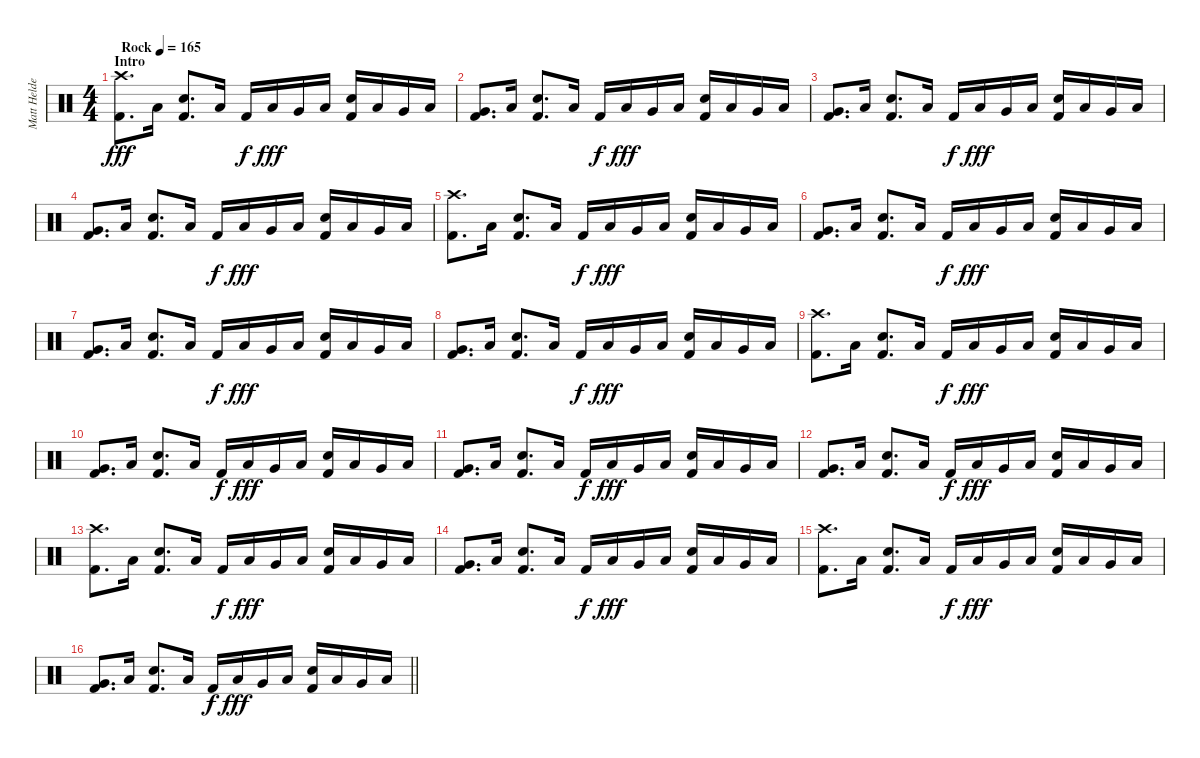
\track ("Matt Helders (Drums)" "Matt Helde") {instrument percussion}
\staff {score}
\articulation defaults
\ts (4 4)
\section ("" "Intro")
\tempo (165 "Rock")
\clef neutral
\ks c
("Crash high (hit)" "Kick (hit) 2").8{d dy fff} "Low Tom (hit)".16 ("Electric Snare (hit)" "Kick (hit) 2").8{d} "Low Tom (hit)".16 "Kick (hit) 2".16{dy f} "Low Tom (hit)".16{dy fff} "Very Low Tom (hit)".16 "Low Tom (hit)".16 ("Electric Snare (hit)" "Kick (hit) 2").16 "Low Tom (hit)".16 "Very Low Tom (hit)".16 "Low Tom (hit)".16 |
("Very Low Tom (hit)" "Kick (hit) 2").8{d} "Low Tom (hit)".16 ("Electric Snare (hit)" "Kick (hit) 2").8{d} "Low Tom (hit)".16 "Kick (hit) 2".16{dy f} "Low Tom (hit)".16{dy fff} "Very Low Tom (hit)".16 "Low Tom (hit)".16 ("Electric Snare (hit)" "Kick (hit) 2").16 "Low Tom (hit)".16 "Very Low Tom (hit)".16 "Low Tom (hit)".16 |
("Very Low Tom (hit)" "Kick (hit) 2").8{d} "Low Tom (hit)".16 ("Electric Snare (hit)" "Kick (hit) 2").8{d} "Low Tom (hit)".16 "Kick (hit) 2".16{dy f} "Low Tom (hit)".16{dy fff} "Very Low Tom (hit)".16 "Low Tom (hit)".16 ("Electric Snare (hit)" "Kick (hit) 2").16 "Low Tom (hit)".16 "Very Low Tom (hit)".16 "Low Tom (hit)".16 |
("Very Low Tom (hit)" "Kick (hit) 2").8{d} "Low Tom (hit)".16 ("Electric Snare (hit)" "Kick (hit) 2").8{d} "Low Tom (hit)".16 "Kick (hit) 2".16{dy f} "Low Tom (hit)".16{dy fff} "Very Low Tom (hit)".16 "Low Tom (hit)".16 ("Electric Snare (hit)" "Kick (hit) 2").16 "Low Tom (hit)".16 "Very Low Tom (hit)".16 "Low Tom (hit)".16 |
("Crash high (hit)" "Kick (hit) 2").8{d} "Low Tom (hit)".16 ("Electric Snare (hit)" "Kick (hit) 2").8{d} "Low Tom (hit)".16 "Kick (hit) 2".16{dy f} "Low Tom (hit)".16{dy fff} "Very Low Tom (hit)".16 "Low Tom (hit)".16 ("Electric Snare (hit)" "Kick (hit) 2").16 "Low Tom (hit)".16 "Very Low Tom (hit)".16 "Low Tom (hit)".16 |
("Very Low Tom (hit)" "Kick (hit) 2").8{d} "Low Tom (hit)".16 ("Electric Snare (hit)" "Kick (hit) 2").8{d} "Low Tom (hit)".16 "Kick (hit) 2".16{dy f} "Low Tom (hit)".16{dy fff} "Very Low Tom (hit)".16 "Low Tom (hit)".16 ("Electric Snare (hit)" "Kick (hit) 2").16 "Low Tom (hit)".16 "Very Low Tom (hit)".16 "Low Tom (hit)".16 |
("Very Low Tom (hit)" "Kick (hit) 2").8{d} "Low Tom (hit)".16 ("Electric Snare (hit)" "Kick (hit) 2").8{d} "Low Tom (hit)".16 "Kick (hit) 2".16{dy f} "Low Tom (hit)".16{dy fff} "Very Low Tom (hit)".16 "Low Tom (hit)".16 ("Electric Snare (hit)" "Kick (hit) 2").16 "Low Tom (hit)".16 "Very Low Tom (hit)".16 "Low Tom (hit)".16 |
("Very Low Tom (hit)" "Kick (hit) 2").8{d} "Low Tom (hit)".16 ("Electric Snare (hit)" "Kick (hit) 2").8{d} "Low Tom (hit)".16 "Kick (hit) 2".16{dy f} "Low Tom (hit)".16{dy fff} "Very Low Tom (hit)".16 "Low Tom (hit)".16 ("Electric Snare (hit)" "Kick (hit) 2").16 "Low Tom (hit)".16 "Very Low Tom (hit)".16 "Low Tom (hit)".16 |
("Crash high (hit)" "Kick (hit) 2").8{d} "Low Tom (hit)".16 ("Electric Snare (hit)" "Kick (hit) 2").8{d} "Low Tom (hit)".16 "Kick (hit) 2".16{dy f} "Low Tom (hit)".16{dy fff} "Very Low Tom (hit)".16 "Low Tom (hit)".16 ("Electric Snare (hit)" "Kick (hit) 2").16 "Low Tom (hit)".16 "Very Low Tom (hit)".16 "Low Tom (hit)".16 |
("Very Low Tom (hit)" "Kick (hit) 2").8{d} "Low Tom (hit)".16 ("Electric Snare (hit)" "Kick (hit) 2").8{d} "Low Tom (hit)".16 "Kick (hit) 2".16{dy f} "Low Tom (hit)".16{dy fff} "Very Low Tom (hit)".16 "Low Tom (hit)".16 ("Electric Snare (hit)" "Kick (hit) 2").16 "Low Tom (hit)".16 "Very Low Tom (hit)".16 "Low Tom (hit)".16 |
("Very Low Tom (hit)" "Kick (hit) 2").8{d} "Low Tom (hit)".16 ("Electric Snare (hit)" "Kick (hit) 2").8{d} "Low Tom (hit)".16 "Kick (hit) 2".16{dy f} "Low Tom (hit)".16{dy fff} "Very Low Tom (hit)".16 "Low Tom (hit)".16 ("Electric Snare (hit)" "Kick (hit) 2").16 "Low Tom (hit)".16 "Very Low Tom (hit)".16 "Low Tom (hit)".16 |
("Very Low Tom (hit)" "Kick (hit) 2").8{d} "Low Tom (hit)".16 ("Electric Snare (hit)" "Kick (hit) 2").8{d} "Low Tom (hit)".16 "Kick (hit) 2".16{dy f} "Low Tom (hit)".16{dy fff} "Very Low Tom (hit)".16 "Low Tom (hit)".16 ("Electric Snare (hit)" "Kick (hit) 2").16 "Low Tom (hit)".16 "Very Low Tom (hit)".16 "Low Tom (hit)".16 |
("Crash high (hit)" "Kick (hit) 2").8{d} "Low Tom (hit)".16 ("Electric Snare (hit)" "Kick (hit) 2").8{d} "Low Tom (hit)".16 "Kick (hit) 2".16{dy f} "Low Tom (hit)".16{dy fff} "Very Low Tom (hit)".16 "Low Tom (hit)".16 ("Electric Snare (hit)" "Kick (hit) 2").16 "Low Tom (hit)".16 "Very Low Tom (hit)".16 "Low Tom (hit)".16 |
("Very Low Tom (hit)" "Kick (hit) 2").8{d} "Low Tom (hit)".16 ("Electric Snare (hit)" "Kick (hit) 2").8{d} "Low Tom (hit)".16 "Kick (hit) 2".16{dy f} "Low Tom (hit)".16{dy fff} "Very Low Tom (hit)".16 "Low Tom (hit)".16 ("Electric Snare (hit)" "Kick (hit) 2").16 "Low Tom (hit)".16 "Very Low Tom (hit)".16 "Low Tom (hit)".16 |
("Crash high (hit)" "Kick (hit) 2").8{d} "Low Tom (hit)".16 ("Electric Snare (hit)" "Kick (hit) 2").8{d} "Low Tom (hit)".16 "Kick (hit) 2".16{dy f} "Low Tom (hit)".16{dy fff} "Very Low Tom (hit)".16 "Low Tom (hit)".16 ("Electric Snare (hit)" "Kick (hit) 2").16 "Low Tom (hit)".16 "Very Low Tom (hit)".16 "Low Tom (hit)".16 |
\barLineRight lightlight
("Very Low Tom (hit)" "Kick (hit) 2").8{d} "Low Tom (hit)".16 ("Electric Snare (hit)" "Kick (hit) 2").8{d} "Low Tom (hit)".16 "Kick (hit) 2".16{dy f} "Low Tom (hit)".16{dy fff} "Very Low Tom (hit)".16 "Low Tom (hit)".16 ("Electric Snare (hit)" "Kick (hit) 2").16 "Low Tom (hit)".16 "Very Low Tom (hit)".16 "Low Tom (hit)".16
